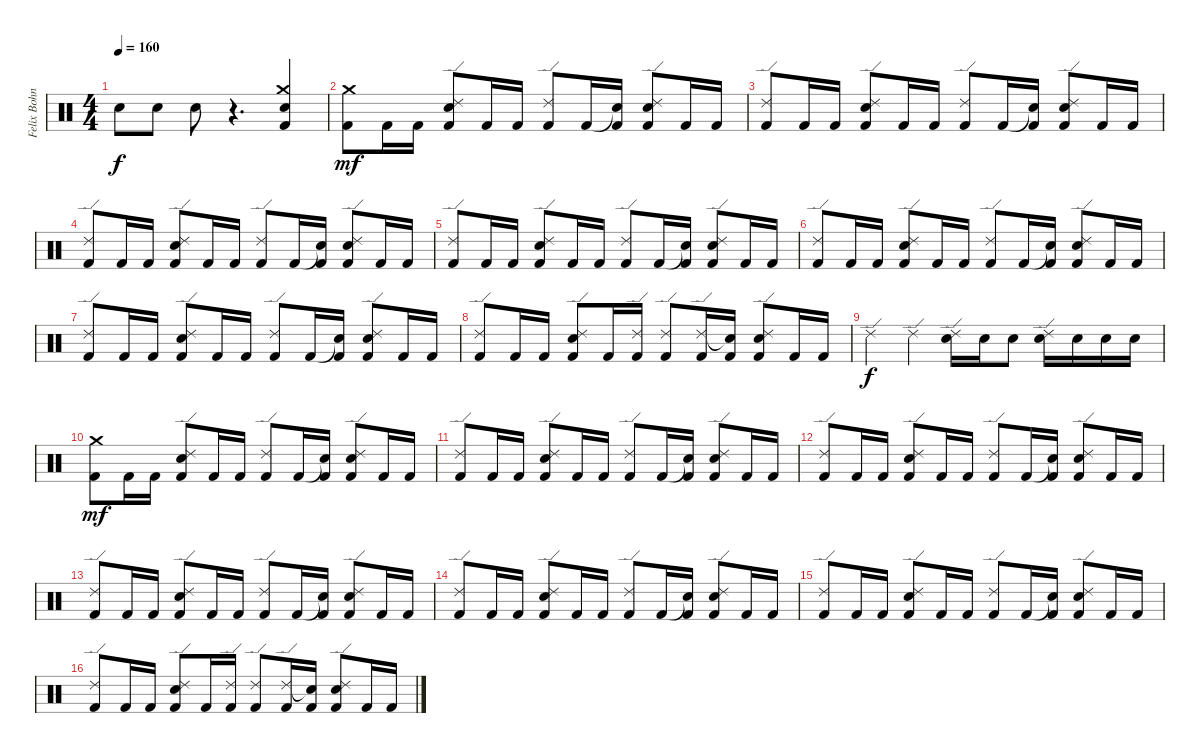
\track ("Felix Bohnke" "Felix Bohn") {instrument percussion}
\staff {score}
\articulation defaults
\ts (4 4)
\tempo 160
\clef neutral
\ks c "Electric Snare (hit)".8{dy f} "Electric Snare (hit)".8 "Electric Snare (hit)".8
r.4{d} ("Crash medium (hit)" "Electric Snare (hit)" "Kick (hit) 2").4 |
("Crash medium (hit)" "Kick (hit) 2").8{dy mf} "Kick (hit) 2".16 "Kick (hit) 2".16 ("Ride (edge) 2" "Electric Snare (hit)" "Kick (hit) 2").8 "Kick (hit) 2".16 "Kick (hit) 2".16 ("Ride (edge) 2" "Kick (hit) 2").8 "Kick (hit) 2".16 ("Snare (hit)"{t} "Kick (hit) 2").16 ("Ride (edge) 2" "Electric Snare (hit)" "Kick (hit) 2").8 "Kick (hit) 2".16 "Kick (hit) 2".16 |
("Ride (edge) 2" "Kick (hit) 2").8 "Kick (hit) 2".16 "Kick (hit) 2".16 ("Ride (edge) 2" "Electric Snare (hit)" "Kick (hit) 2").8 "Kick (hit) 2".16 "Kick (hit) 2".16 ("Ride (edge) 2" "Kick (hit) 2").8 "Kick (hit) 2".16 ("Snare (hit)"{t} "Kick (hit) 2").16 ("Ride (edge) 2" "Electric Snare (hit)" "Kick (hit) 2").8 "Kick (hit) 2".16 "Kick (hit) 2".16 |
("Ride (edge) 2" "Kick (hit) 2").8 "Kick (hit) 2".16 "Kick (hit) 2".16 ("Ride (edge) 2" "Electric Snare (hit)" "Kick (hit) 2").8 "Kick (hit) 2".16 "Kick (hit) 2".16 ("Ride (edge) 2" "Kick (hit) 2").8 "Kick (hit) 2".16 ("Snare (hit)"{t} "Kick (hit) 2").16 ("Ride (edge) 2" "Electric Snare (hit)" "Kick (hit) 2").8 "Kick (hit) 2".16 "Kick (hit) 2".16 |
("Ride (edge) 2" "Kick (hit) 2").8 "Kick (hit) 2".16 "Kick (hit) 2".16 ("Ride (edge) 2" "Electric Snare (hit)" "Kick (hit) 2").8 "Kick (hit) 2".16 "Kick (hit) 2".16 ("Ride (edge) 2" "Kick (hit) 2").8 "Kick (hit) 2".16 ("Snare (hit)"{t} "Kick (hit) 2").16 ("Ride (edge) 2" "Electric Snare (hit)" "Kick (hit) 2").8 "Kick (hit) 2".16 "Kick (hit) 2".16 |
("Ride (edge) 2" "Kick (hit) 2").8 "Kick (hit) 2".16 "Kick (hit) 2".16 ("Ride (edge) 2" "Electric Snare (hit)" "Kick (hit) 2").8 "Kick (hit) 2".16 "Kick (hit) 2".16 ("Ride (edge) 2" "Kick (hit) 2").8 "Kick (hit) 2".16 ("Snare (hit)"{t} "Kick (hit) 2").16 ("Ride (edge) 2" "Electric Snare (hit)" "Kick (hit) 2").8 "Kick (hit) 2".16 "Kick (hit) 2".16 |
("Ride (edge) 2" "Kick (hit) 2").8 "Kick (hit) 2".16 "Kick (hit) 2".16 ("Ride (edge) 2" "Electric Snare (hit)" "Kick (hit) 2").8 "Kick (hit) 2".16 "Kick (hit) 2".16 ("Ride (edge) 2" "Kick (hit) 2").8 "Kick (hit) 2".16 ("Snare (hit)"{t} "Kick (hit) 2").16 ("Ride (edge) 2" "Electric Snare (hit)" "Kick (hit) 2").8 "Kick (hit) 2".16 "Kick (hit) 2".16 |
("Ride (edge) 2" "Kick (hit) 2").8 "Kick (hit) 2".16 "Kick (hit) 2".16 ("Ride (edge) 2" "Electric Snare (hit)" "Kick (hit) 2").8 "Kick (hit) 2".16 ("Ride (edge) 2" "Kick (hit) 2").16 ("Ride (edge) 2" "Kick (hit) 2").8 ("Ride (edge) 2" "Kick (hit) 2").16 ("Snare (hit)"{t} "Kick (hit) 2").16 ("Ride (edge) 2" "Electric Snare (hit)" "Kick (hit) 2").8 "Kick (hit) 2".16 "Kick (hit) 2".16 |
"Ride (edge) 2".4{dy f} "Ride (edge) 2".4 ("Ride (edge) 2" "Electric Snare (hit)").16 "Electric Snare (hit)".16 "Electric Snare (hit)".8 ("Ride (edge) 2" "Electric Snare (hit)").16 "Electric Snare (hit)".16 "Electric Snare (hit)".16 "Electric Snare (hit)".16 |
("Crash medium (hit)" "Kick (hit) 2").8{dy mf} "Kick (hit) 2".16 "Kick (hit) 2".16 ("Ride (edge) 2" "Electric Snare (hit)" "Kick (hit) 2").8 "Kick (hit) 2".16 "Kick (hit) 2".16 ("Ride (edge) 2" "Kick (hit) 2").8 "Kick (hit) 2".16 ("Snare (hit)"{t} "Kick (hit) 2").16 ("Ride (edge) 2" "Electric Snare (hit)" "Kick (hit) 2").8 "Kick (hit) 2".16 "Kick (hit) 2".16 |
("Ride (edge) 2" "Kick (hit) 2").8 "Kick (hit) 2".16 "Kick (hit) 2".16 ("Ride (edge) 2" "Electric Snare (hit)" "Kick (hit) 2").8 "Kick (hit) 2".16 "Kick (hit) 2".16 ("Ride (edge) 2" "Kick (hit) 2").8 "Kick (hit) 2".16 ("Snare (hit)"{t} "Kick (hit) 2").16 ("Ride (edge) 2" "Electric Snare (hit)" "Kick (hit) 2").8 "Kick (hit) 2".16 "Kick (hit) 2".16 |
("Ride (edge) 2" "Kick (hit) 2").8 "Kick (hit) 2".16 "Kick (hit) 2".16 ("Ride (edge) 2" "Electric Snare (hit)" "Kick (hit) 2").8 "Kick (hit) 2".16 "Kick (hit) 2".16 ("Ride (edge) 2" "Kick (hit) 2").8 "Kick (hit) 2".16 ("Snare (hit)"{t} "Kick (hit) 2").16 ("Ride (edge) 2" "Electric Snare (hit)" "Kick (hit) 2").8 "Kick (hit) 2".16 "Kick (hit) 2".16 |
("Ride (edge) 2" "Kick (hit) 2").8 "Kick (hit) 2".16 "Kick (hit) 2".16 ("Ride (edge) 2" "Electric Snare (hit)" "Kick (hit) 2").8 "Kick (hit) 2".16 "Kick (hit) 2".16 ("Ride (edge) 2" "Kick (hit) 2").8 "Kick (hit) 2".16 ("Snare (hit)"{t} "Kick (hit) 2").16 ("Ride (edge) 2" "Electric Snare (hit)" "Kick (hit) 2").8 "Kick (hit) 2".16 "Kick (hit) 2".16 |
("Ride (edge) 2" "Kick (hit) 2").8 "Kick (hit) 2".16 "Kick (hit) 2".16 ("Ride (edge) 2" "Electric Snare (hit)" "Kick (hit) 2").8 "Kick (hit) 2".16 "Kick (hit) 2".16 ("Ride (edge) 2" "Kick (hit) 2").8 "Kick (hit) 2".16 ("Snare (hit)"{t} "Kick (hit) 2").16 ("Ride (edge) 2" "Electric Snare (hit)" "Kick (hit) 2").8 "Kick (hit) 2".16 "Kick (hit) 2".16 |
("Ride (edge) 2" "Kick (hit) 2").8 "Kick (hit) 2".16 "Kick (hit) 2".16 ("Ride (edge) 2" "Electric Snare (hit)" "Kick (hit) 2").8 "Kick (hit) 2".16 "Kick (hit) 2".16 ("Ride (edge) 2" "Kick (hit) 2").8 "Kick (hit) 2".16 ("Snare (hit)"{t} "Kick (hit) 2").16 ("Ride (edge) 2" "Electric Snare (hit)" "Kick (hit) 2").8 "Kick (hit) 2".16 "Kick (hit) 2".16 |
("Ride (edge) 2" "Kick (hit) 2").8 "Kick (hit) 2".16 "Kick (hit) 2".16 ("Ride (edge) 2" "Electric Snare (hit)" "Kick (hit) 2").8 "Kick (hit) 2".16 ("Ride (edge) 2" "Kick (hit) 2").16 ("Ride (edge) 2" "Kick (hit) 2").8 ("Ride (edge) 2" "Kick (hit) 2").16 ("Snare (hit)"{t} "Kick (hit) 2").16 ("Ride (edge) 2" "Electric Snare (hit)" "Kick (hit) 2").8 "Kick (hit) 2".16 "Kick (hit) 2".16
